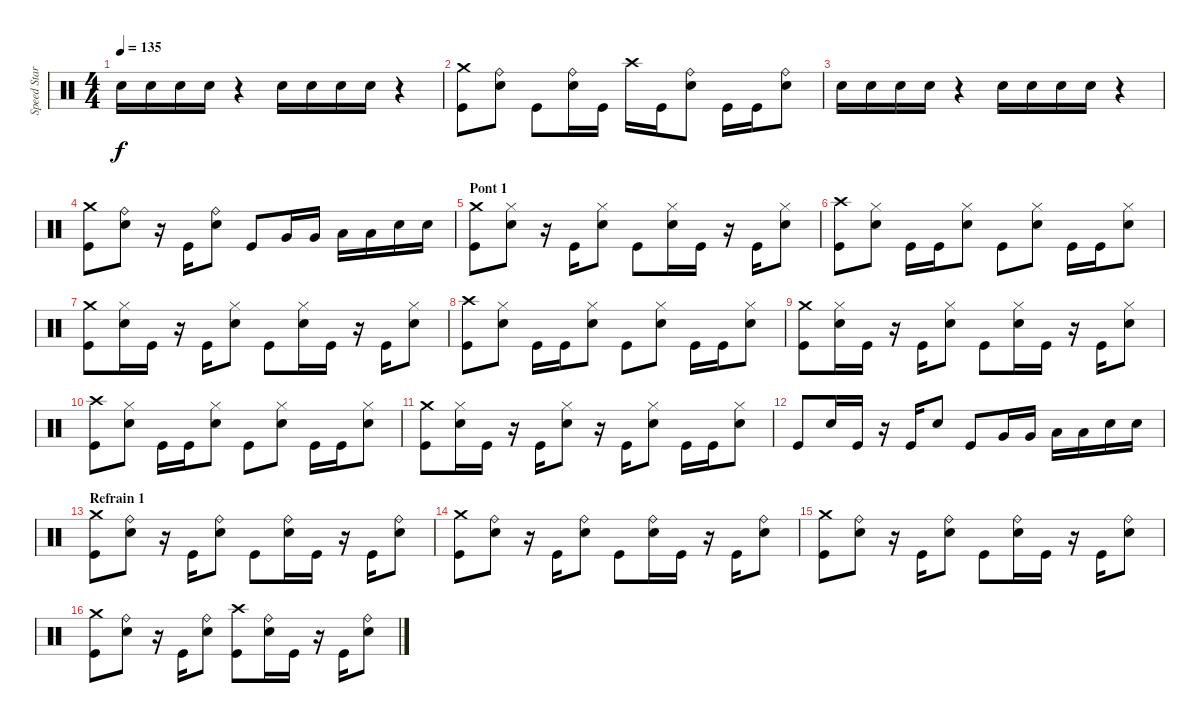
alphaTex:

\track ("Speed Star" "Speed Star") {instrument percussion}
\staff {score}
\articulation defaults
\ts (4 4)
\tempo 135
\clef neutral
\ks c "Snare (hit) 2".16{dy f} "Snare (hit) 2".16 "Snare (hit) 2".16 "Snare (hit) 2".16
r.4 "Snare (hit) 2".16 "Snare (hit) 2".16 "Snare (hit) 2".16 "Snare (hit) 2".16 r.4 |
("Kick (hit)" "Crash medium (hit)").8 ("Snare (hit) 2" "Ride (bell)").8 "Kick (hit)".8 ("Snare (hit) 2" "Ride (bell)").16 "Kick (hit)".16 "Crash high (hit)".16 "Kick (hit)".16 ("Snare (hit) 2" "Ride (bell)").8 "Kick (hit)".16 "Kick (hit)".16 ("Snare (hit) 2" "Ride (bell)").8 |
"Snare (hit) 2".16 "Snare (hit) 2".16 "Snare (hit) 2".16 "Snare (hit) 2".16 r.4 "Snare (hit) 2".16 "Snare (hit) 2".16 "Snare (hit) 2".16 "Snare (hit) 2".16 r.4 |
("Kick (hit)" "Crash medium (hit)").8 ("Snare (hit) 2" "Ride (bell)").8 r.16 "Kick (hit)".16 ("Snare (hit) 2" "Ride (bell)").8 "Kick (hit)".8 "Very Low Tom (hit)".16 "Very Low Tom (hit)".16 "Low Floor Tom (hit)".16 "Low Floor Tom (hit)".16 "Snare (hit) 2".16 "Snare (hit) 2".16 |
\section ("" "Pont 1")
("Kick (hit)" "Crash medium (hit)").8 ("Snare (hit) 2" "Hi-Hat (closed)").8 r.16 "Kick (hit)".16 ("Snare (hit) 2" "Hi-Hat (closed)").8 "Kick (hit)".8 ("Snare (hit) 2" "Hi-Hat (closed)").16 "Kick (hit)".16 r.16 "Kick (hit)".16 ("Snare (hit) 2" "Hi-Hat (closed)").8 |
("Kick (hit)" "Crash high (hit)").8 ("Snare (hit) 2" "Hi-Hat (closed)").8 "Kick (hit)".16 "Kick (hit)".16 ("Snare (hit) 2" "Hi-Hat (closed)").8 "Kick (hit)".8 ("Snare (hit) 2" "Hi-Hat (closed)").8 "Kick (hit)".16 "Kick (hit)".16 ("Snare (hit) 2" "Hi-Hat (closed)").8 |
("Kick (hit)" "Crash medium (hit)").8 ("Snare (hit) 2" "Hi-Hat (closed)").16 "Kick (hit)".16 r.16 "Kick (hit)".16 ("Snare (hit) 2" "Hi-Hat (closed)").8 "Kick (hit)".8 ("Snare (hit) 2" "Hi-Hat (closed)").16 "Kick (hit)".16 r.16 "Kick (hit)".16 ("Snare (hit) 2" "Hi-Hat (closed)").8 |
("Kick (hit)" "Crash high (hit)").8 ("Snare (hit) 2" "Hi-Hat (closed)").8 "Kick (hit)".16 "Kick (hit)".16 ("Snare (hit) 2" "Hi-Hat (closed)").8 "Kick (hit)".8 ("Snare (hit) 2" "Hi-Hat (closed)").8 "Kick (hit)".16 "Kick (hit)".16 ("Snare (hit) 2" "Hi-Hat (closed)").8 |
("Kick (hit)" "Crash medium (hit)").8 ("Snare (hit) 2" "Hi-Hat (closed)").16 "Kick (hit)".16 r.16 "Kick (hit)".16 ("Snare (hit) 2" "Hi-Hat (closed)").8 "Kick (hit)".8 ("Snare (hit) 2" "Hi-Hat (closed)").16 "Kick (hit)".16 r.16 "Kick (hit)".16 ("Snare (hit) 2" "Hi-Hat (closed)").8 |
("Kick (hit)" "Crash high (hit)").8 ("Snare (hit) 2" "Hi-Hat (closed)").8 "Kick (hit)".16 "Kick (hit)".16 ("Snare (hit) 2" "Hi-Hat (closed)").8 "Kick (hit)".8 ("Snare (hit) 2" "Hi-Hat (closed)").8 "Kick (hit)".16 "Kick (hit)".16 ("Snare (hit) 2" "Hi-Hat (closed)").8 |
("Kick (hit)" "Crash medium (hit)").8 ("Snare (hit) 2" "Hi-Hat (closed)").16 "Kick (hit)".16 r.16 "Kick (hit)".16 ("Snare (hit) 2" "Hi-Hat (closed)").8 r.16 "Kick (hit)".16 ("Snare (hit) 2" "Hi-Hat (closed)").8 "Kick (hit)".16 "Kick (hit)".16 ("Snare (hit) 2" "Hi-Hat (closed)").8 |
"Kick (hit)".8 "Snare (hit) 2".16 "Kick (hit)".16 r.16 "Kick (hit)".16 "Snare (hit) 2".8 "Kick (hit)".8 "Very Low Tom (hit)".16 "Very Low Tom (hit)".16 "Low Floor Tom (hit)".16 "Low Floor Tom (hit)".16 "Snare (hit) 2".16 "Snare (hit) 2".16 |
\section ("" "Refrain 1")
("Kick (hit)" "Crash medium (hit)").8 ("Snare (hit) 2" "Ride (bell)").8 r.16 "Kick (hit)".16 ("Snare (hit) 2" "Ride (bell)").8 "Kick (hit)".8 ("Snare (hit) 2" "Ride (bell)").16 "Kick (hit)".16 r.16 "Kick (hit)".16 ("Snare (hit) 2" "Ride (bell)").8 |
("Kick (hit)" "Crash medium (hit)").8 ("Snare (hit) 2" "Ride (bell)").8 r.16 "Kick (hit)".16 ("Snare (hit) 2" "Ride (bell)").8 "Kick (hit)".8 ("Snare (hit) 2" "Ride (bell)").16 "Kick (hit)".16 r.16 "Kick (hit)".16 ("Snare (hit) 2" "Ride (bell)").8 |
("Kick (hit)" "Crash medium (hit)").8 ("Snare (hit) 2" "Ride (bell)").8 r.16 "Kick (hit)".16 ("Snare (hit) 2" "Ride (bell)").8 "Kick (hit)".8 ("Snare (hit) 2" "Ride (bell)").16 "Kick (hit)".16 r.16 "Kick (hit)".16 ("Snare (hit) 2" "Ride (bell)").8 |
("Kick (hit)" "Crash medium (hit)").8 ("Snare (hit) 2" "Ride (bell)").8 r.16 "Kick (hit)".16 ("Snare (hit) 2" "Ride (bell)").8 ("Kick (hit)" "Crash high (hit)").8 ("Snare (hit) 2" "Ride (bell)").16 "Kick (hit)".16 r.16 "Kick (hit)".16 ("Snare (hit) 2" "Ride (bell)").8
